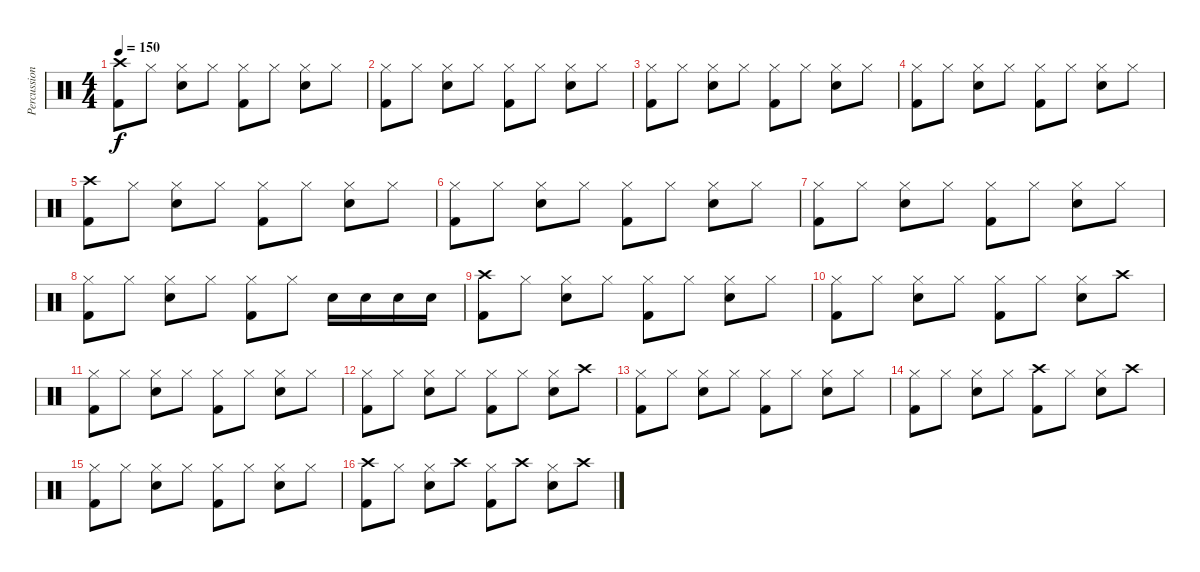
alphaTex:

\track ("Percussion" "Percussion") {instrument percussion}
\staff {score}
\articulation defaults
\ts (4 4)
\tempo 150
\clef neutral
\ks c
("Kick (hit) 2" "Crash high (hit)").8{dy f} "Hi-Hat (closed)".8 ("Snare (hit) 2" "Hi-Hat (closed)").8 "Hi-Hat (closed)".8 ("Kick (hit) 2" "Hi-Hat (closed)").8 "Hi-Hat (closed)".8 ("Snare (hit) 2" "Hi-Hat (closed)").8 "Hi-Hat (closed)".8 |
("Kick (hit) 2" "Hi-Hat (closed)").8 "Hi-Hat (closed)".8 ("Snare (hit) 2" "Hi-Hat (closed)").8 "Hi-Hat (closed)".8 ("Kick (hit) 2" "Hi-Hat (closed)").8 "Hi-Hat (closed)".8 ("Snare (hit) 2" "Hi-Hat (closed)").8 "Hi-Hat (closed)".8 |
("Kick (hit) 2" "Hi-Hat (closed)").8 "Hi-Hat (closed)".8 ("Snare (hit) 2" "Hi-Hat (closed)").8 "Hi-Hat (closed)".8 ("Kick (hit) 2" "Hi-Hat (closed)").8 "Hi-Hat (closed)".8 ("Snare (hit) 2" "Hi-Hat (closed)").8 "Hi-Hat (closed)".8 |
("Kick (hit) 2" "Hi-Hat (closed)").8 "Hi-Hat (closed)".8 ("Snare (hit) 2" "Hi-Hat (closed)").8 "Hi-Hat (closed)".8 ("Kick (hit) 2" "Hi-Hat (closed)").8 "Hi-Hat (closed)".8 ("Snare (hit) 2" "Hi-Hat (closed)").8 "Hi-Hat (closed)".8 |
("Kick (hit) 2" "Crash high (hit)").8 "Hi-Hat (closed)".8 ("Snare (hit) 2" "Hi-Hat (closed)").8 "Hi-Hat (closed)".8 ("Kick (hit) 2" "Hi-Hat (closed)").8 "Hi-Hat (closed)".8 ("Snare (hit) 2" "Hi-Hat (closed)").8 "Hi-Hat (closed)".8 |
("Kick (hit) 2" "Hi-Hat (closed)").8 "Hi-Hat (closed)".8 ("Snare (hit) 2" "Hi-Hat (closed)").8 "Hi-Hat (closed)".8 ("Kick (hit) 2" "Hi-Hat (closed)").8 "Hi-Hat (closed)".8 ("Snare (hit) 2" "Hi-Hat (closed)").8 "Hi-Hat (closed)".8 |
("Kick (hit) 2" "Hi-Hat (closed)").8 "Hi-Hat (closed)".8 ("Snare (hit) 2" "Hi-Hat (closed)").8 "Hi-Hat (closed)".8 ("Kick (hit) 2" "Hi-Hat (closed)").8 "Hi-Hat (closed)".8 ("Snare (hit) 2" "Hi-Hat (closed)").8 "Hi-Hat (closed)".8 |
("Kick (hit) 2" "Hi-Hat (closed)").8 "Hi-Hat (closed)".8 ("Snare (hit) 2" "Hi-Hat (closed)").8 "Hi-Hat (closed)".8 ("Kick (hit) 2" "Hi-Hat (closed)").8 "Hi-Hat (closed)".8 "Snare (hit) 2".16 "Snare (hit) 2".16 "Snare (hit) 2".16 "Snare (hit) 2".16 |
("Kick (hit) 2" "Crash high (hit)").8 "Hi-Hat (closed)".8 ("Snare (hit) 2" "Hi-Hat (closed)").8 "Hi-Hat (closed)".8 ("Kick (hit) 2" "Hi-Hat (closed)").8 "Hi-Hat (closed)".8 ("Snare (hit) 2" "Hi-Hat (closed)").8 "Hi-Hat (closed)".8 |
("Kick (hit) 2" "Hi-Hat (closed)").8 "Hi-Hat (closed)".8 ("Snare (hit) 2" "Hi-Hat (closed)").8 "Hi-Hat (closed)".8 ("Kick (hit) 2" "Hi-Hat (closed)").8 "Hi-Hat (closed)".8 ("Snare (hit) 2" "Hi-Hat (closed)").8 "Crash high (hit)".8 |
("Kick (hit) 2" "Hi-Hat (closed)").8 "Hi-Hat (closed)".8 ("Snare (hit) 2" "Hi-Hat (closed)").8 "Hi-Hat (closed)".8 ("Kick (hit) 2" "Hi-Hat (closed)").8 "Hi-Hat (closed)".8 ("Snare (hit) 2" "Hi-Hat (closed)").8 "Hi-Hat (closed)".8 |
("Kick (hit) 2" "Hi-Hat (closed)").8 "Hi-Hat (closed)".8 ("Snare (hit) 2" "Hi-Hat (closed)").8 "Hi-Hat (closed)".8 ("Kick (hit) 2" "Hi-Hat (closed)").8 "Hi-Hat (closed)".8 ("Snare (hit) 2" "Hi-Hat (closed)").8 "Crash high (hit)".8 |
("Kick (hit) 2" "Hi-Hat (closed)").8 "Hi-Hat (closed)".8 ("Snare (hit) 2" "Hi-Hat (closed)").8 "Hi-Hat (closed)".8 ("Kick (hit) 2" "Hi-Hat (closed)").8 "Hi-Hat (closed)".8 ("Snare (hit) 2" "Hi-Hat (closed)").8 "Hi-Hat (closed)".8 |
("Kick (hit) 2" "Hi-Hat (closed)").8 "Hi-Hat (closed)".8 ("Snare (hit) 2" "Hi-Hat (closed)").8 "Hi-Hat (closed)".8 ("Kick (hit) 2" "Crash high (hit)").8 "Hi-Hat (closed)".8 ("Snare (hit) 2" "Hi-Hat (closed)").8 "Crash high (hit)".8 |
("Kick (hit) 2" "Hi-Hat (closed)").8 "Hi-Hat (closed)".8 ("Snare (hit) 2" "Hi-Hat (closed)").8 "Hi-Hat (closed)".8 ("Kick (hit) 2" "Hi-Hat (closed)").8 "Hi-Hat (closed)".8 ("Snare (hit) 2" "Hi-Hat (closed)").8 "Hi-Hat (closed)".8 |
("Kick (hit) 2" "Crash high (hit)").8 "Hi-Hat (closed)".8 ("Snare (hit) 2" "Hi-Hat (closed)").8 "Crash high (hit)".8 ("Kick (hit) 2" "Hi-Hat (closed)").8 "Crash high (hit)".8 ("Snare (hit) 2" "Hi-Hat (closed)").8 "Crash high (hit)".8
